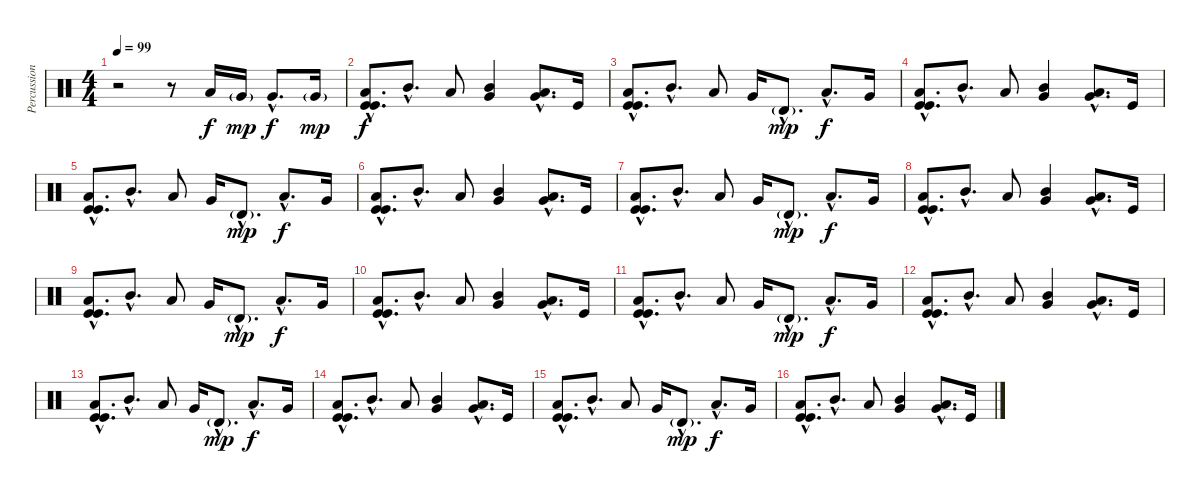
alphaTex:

\track ("Percussions2" "Percussion") {instrument percussion}
\staff {score}
\articulation defaults
\ts (4 4)
\tempo 99
\clef neutral
\ks c
r.2{dy f} r.8 "Low Floor Tom (hit)".16 "Very Low Tom (hit)"{g}.16{dy mp} "Very Low Tom (hit)"{hac}.8{d dy f} "Very Low Tom (hit)"{g}.16{dy mp} |
("Low Floor Tom (hit)"{hac} "Kick (hit)"{hac} "Kick (hit)"{hac}).8{d dy f} "Mid Tom (hit)"{hac}.8{d} "Low Tom (hit)".8 ("Very Low Tom (hit)" "Mid Tom (hit)").4 ("Very Low Tom (hit)"{hac} "Low Floor Tom (hit)"{hac}).8{d} "Kick (hit)".16 |
("Low Floor Tom (hit)"{hac} "Kick (hit)"{hac} "Kick (hit)"{hac}).8{d} "Mid Tom (hit)"{hac}.8{d} "Low Tom (hit)".8 "Very Low Tom (hit)".16 "Timbale high (hit)"{g hac}.8{d dy mp} "Low Floor Tom (hit)"{hac}.8{d dy f} "Very Low Tom (hit)".16 |
("Low Floor Tom (hit)"{hac} "Kick (hit)"{hac} "Kick (hit)"{hac}).8{d} "Mid Tom (hit)"{hac}.8{d} "Low Tom (hit)".8 ("Very Low Tom (hit)" "Mid Tom (hit)").4 ("Very Low Tom (hit)"{hac} "Low Floor Tom (hit)"{hac}).8{d} "Kick (hit)".16 |
("Low Floor Tom (hit)"{hac} "Kick (hit)"{hac} "Kick (hit)"{hac}).8{d} "Mid Tom (hit)"{hac}.8{d} "Low Tom (hit)".8 "Very Low Tom (hit)".16 "Timbale high (hit)"{g hac}.8{d dy mp} "Low Floor Tom (hit)"{hac}.8{d dy f} "Very Low Tom (hit)".16 |
("Low Floor Tom (hit)"{hac} "Kick (hit)"{hac} "Kick (hit)"{hac}).8{d} "Mid Tom (hit)"{hac}.8{d} "Low Tom (hit)".8 ("Very Low Tom (hit)" "Mid Tom (hit)").4 ("Very Low Tom (hit)"{hac} "Low Floor Tom (hit)"{hac}).8{d} "Kick (hit)".16 |
("Low Floor Tom (hit)"{hac} "Kick (hit)"{hac} "Kick (hit)"{hac}).8{d} "Mid Tom (hit)"{hac}.8{d} "Low Tom (hit)".8 "Very Low Tom (hit)".16 "Timbale high (hit)"{g hac}.8{d dy mp} "Low Floor Tom (hit)"{hac}.8{d dy f} "Very Low Tom (hit)".16 |
("Low Floor Tom (hit)"{hac} "Kick (hit)"{hac} "Kick (hit)"{hac}).8{d} "Mid Tom (hit)"{hac}.8{d} "Low Tom (hit)".8 ("Very Low Tom (hit)" "Mid Tom (hit)").4 ("Very Low Tom (hit)"{hac} "Low Floor Tom (hit)"{hac}).8{d} "Kick (hit)".16 |
("Low Floor Tom (hit)"{hac} "Kick (hit)"{hac} "Kick (hit)"{hac}).8{d} "Mid Tom (hit)"{hac}.8{d} "Low Tom (hit)".8 "Very Low Tom (hit)".16 "Timbale high (hit)"{g hac}.8{d dy mp} "Low Floor Tom (hit)"{hac}.8{d dy f} "Very Low Tom (hit)".16 |
("Low Floor Tom (hit)"{hac} "Kick (hit)"{hac} "Kick (hit)"{hac}).8{d} "Mid Tom (hit)"{hac}.8{d} "Low Tom (hit)".8 ("Very Low Tom (hit)" "Mid Tom (hit)").4 ("Very Low Tom (hit)"{hac} "Low Floor Tom (hit)"{hac}).8{d} "Kick (hit)".16 |
("Low Floor Tom (hit)"{hac} "Kick (hit)"{hac} "Kick (hit)"{hac}).8{d} "Mid Tom (hit)"{hac}.8{d} "Low Tom (hit)".8 "Very Low Tom (hit)".16 "Timbale high (hit)"{g hac}.8{d dy mp} "Low Floor Tom (hit)"{hac}.8{d dy f} "Very Low Tom (hit)".16 |
("Low Floor Tom (hit)"{hac} "Kick (hit)"{hac} "Kick (hit)"{hac}).8{d} "Mid Tom (hit)"{hac}.8{d} "Low Tom (hit)".8 ("Very Low Tom (hit)" "Mid Tom (hit)").4 ("Very Low Tom (hit)"{hac} "Low Floor Tom (hit)"{hac}).8{d} "Kick (hit)".16 |
("Low Floor Tom (hit)"{hac} "Kick (hit)"{hac} "Kick (hit)"{hac}).8{d} "Mid Tom (hit)"{hac}.8{d} "Low Tom (hit)".8 "Very Low Tom (hit)".16 "Timbale high (hit)"{g hac}.8{d dy mp} "Low Floor Tom (hit)"{hac}.8{d dy f} "Very Low Tom (hit)".16 |
("Low Floor Tom (hit)"{hac} "Kick (hit)"{hac} "Kick (hit)"{hac}).8{d} "Mid Tom (hit)"{hac}.8{d} "Low Tom (hit)".8 ("Very Low Tom (hit)" "Mid Tom (hit)").4 ("Very Low Tom (hit)"{hac} "Low Floor Tom (hit)"{hac}).8{d} "Kick (hit)".16 |
("Low Floor Tom (hit)"{hac} "Kick (hit)"{hac} "Kick (hit)"{hac}).8{d} "Mid Tom (hit)"{hac}.8{d} "Low Tom (hit)".8 "Very Low Tom (hit)".16 "Timbale high (hit)"{g hac}.8{d dy mp} "Low Floor Tom (hit)"{hac}.8{d dy f} "Very Low Tom (hit)".16 |
("Low Floor Tom (hit)"{hac} "Kick (hit)"{hac} "Kick (hit)"{hac}).8{d} "Mid Tom (hit)"{hac}.8{d} "Low Tom (hit)".8 ("Very Low Tom (hit)" "Mid Tom (hit)").4 ("Very Low Tom (hit)"{hac} "Low Floor Tom (hit)"{hac}).8{d} "Kick (hit)".16
